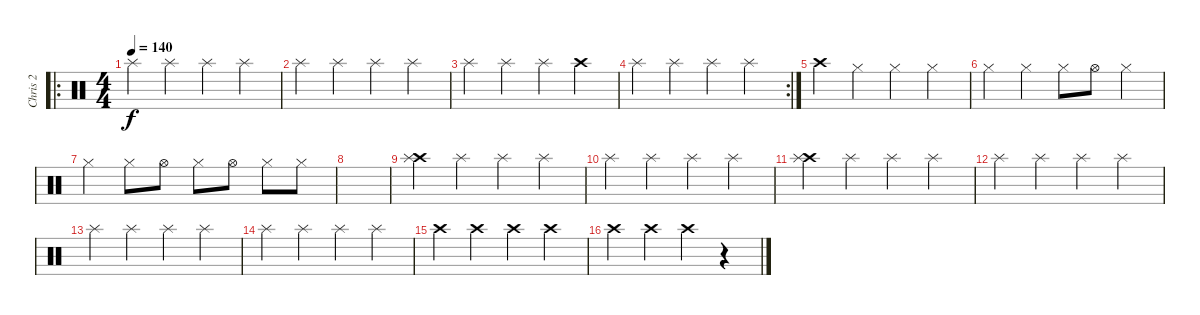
\track ("Chris 2" "Chris 2") {instrument percussion}
\staff {score}
\articulation defaults
\ro
\ts (4 4)
\tempo 140
\clef neutral
\ks c "Splash (hit)".4{dy f} "Splash (hit)".4 "Splash (hit)".4 "Splash (hit)".4
|
"Splash (hit)".4 "Splash (hit)".4 "Splash (hit)".4 "Splash (hit)".4 |
"Splash (hit)".4 "Splash (hit)".4 "Splash (hit)".4 "Crash high (hit)".4 |
\rc 2 "Splash (hit)".4 "Splash (hit)".4 "Splash (hit)".4 "Splash (hit)".4
|
"Crash high (hit)".4 "Hi-Hat (closed)".4 "Hi-Hat (closed)".4 "Hi-Hat (closed)".4 |
"Hi-Hat (closed)".4 "Hi-Hat (closed)".4 "Hi-Hat (closed)".8 "Hi-Hat (open)".8 "Hi-Hat (closed)".4 |
"Hi-Hat (closed)".4 "Hi-Hat (closed)".8 "Hi-Hat (open)".8 "Hi-Hat (closed)".8 "Hi-Hat (open)".8 "Hi-Hat (closed)".8 "Hi-Hat (closed)".8 |
|
("Crash high (hit)" "Splash (hit)").4 "Splash (hit)".4 "Splash (hit)".4 "Splash (hit)".4 |
"Splash (hit)".4 "Splash (hit)".4 "Splash (hit)".4 "Splash (hit)".4 |
("Crash high (hit)" "Splash (hit)").4 "Splash (hit)".4 "Splash (hit)".4 "Splash (hit)".4 |
"Splash (hit)".4 "Splash (hit)".4 "Splash (hit)".4 "Splash (hit)".4 |
"Splash (hit)".4 "Splash (hit)".4 "Splash (hit)".4 "Splash (hit)".4 |
"Splash (hit)".4 "Splash (hit)".4 "Splash (hit)".4 "Splash (hit)".4 |
"Crash high (hit)".4 "Crash high (hit)".4 "Crash high (hit)".4 "Crash high (hit)".4 |
"Crash high (hit)".4 "Crash high (hit)".4 "Crash high (hit)".4 r.4
